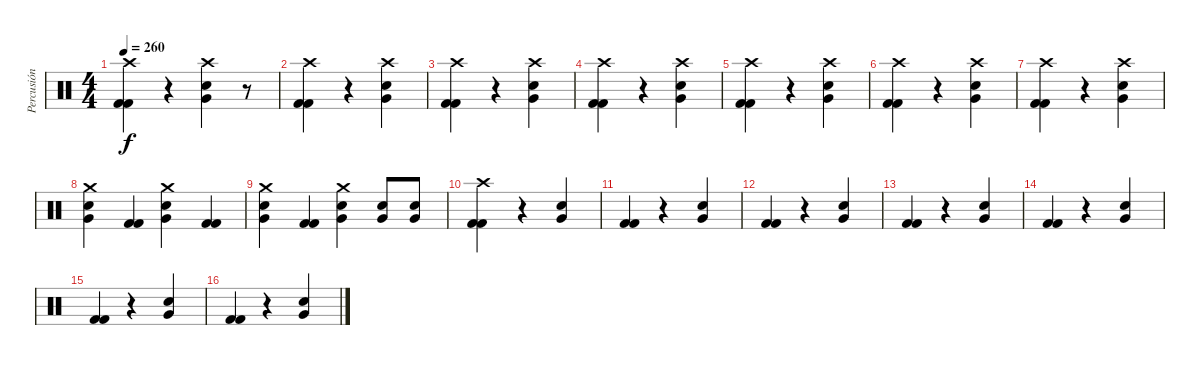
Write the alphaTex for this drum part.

\track ("Percusión" "Percusión") {instrument percussion}
\staff {score}
\articulation defaults
\ts (4 4)
\tempo 260
\clef neutral
\ks c
("Kick (hit) 2" "Kick (hit) 2" "Crash high (hit)").4{dy f} r.4 ("Very Low Tom (hit)" "Electric Snare (hit)" "Crash high (hit)").4 r.8 |
("Kick (hit) 2" "Kick (hit) 2" "Crash high (hit)").4 r.4 ("Very Low Tom (hit)" "Electric Snare (hit)" "Crash high (hit)").4 |
("Kick (hit) 2" "Kick (hit) 2" "Crash high (hit)").4 r.4 ("Very Low Tom (hit)" "Electric Snare (hit)" "Crash high (hit)").4 |
("Kick (hit) 2" "Kick (hit) 2" "Crash high (hit)").4 r.4 ("Very Low Tom (hit)" "Electric Snare (hit)" "Crash high (hit)").4 |
("Kick (hit) 2" "Kick (hit) 2" "Crash high (hit)").4 r.4 ("Very Low Tom (hit)" "Electric Snare (hit)" "Crash high (hit)").4 |
("Kick (hit) 2" "Kick (hit) 2" "Crash high (hit)").4 r.4 ("Very Low Tom (hit)" "Electric Snare (hit)" "Crash high (hit)").4 |
("Kick (hit) 2" "Kick (hit) 2" "Crash high (hit)").4 r.4 ("Very Low Tom (hit)" "Electric Snare (hit)" "Crash high (hit)").4 |
("Very Low Tom (hit)" "Electric Snare (hit)" "Crash medium (hit)").4 ("Kick (hit) 2" "Kick (hit) 2").4 ("Very Low Tom (hit)" "Electric Snare (hit)" "Crash medium (hit)").4 ("Kick (hit) 2" "Kick (hit) 2").4 |
("Very Low Tom (hit)" "Electric Snare (hit)" "Crash medium (hit)").4 ("Kick (hit) 2" "Kick (hit) 2").4 ("Very Low Tom (hit)" "Electric Snare (hit)" "Crash medium (hit)").4 ("Very Low Tom (hit)" "Electric Snare (hit)").8 ("Very Low Tom (hit)" "Electric Snare (hit)").8 |
("Crash high (hit)" "Kick (hit) 2" "Kick (hit) 2").4 r.4 ("Very Low Tom (hit)" "Electric Snare (hit)").4 |
("Kick (hit) 2" "Kick (hit) 2").4 r.4 ("Very Low Tom (hit)" "Electric Snare (hit)").4 |
("Kick (hit) 2" "Kick (hit) 2").4 r.4 ("Very Low Tom (hit)" "Electric Snare (hit)").4 |
("Kick (hit) 2" "Kick (hit) 2").4 r.4 ("Very Low Tom (hit)" "Electric Snare (hit)").4 |
("Kick (hit) 2" "Kick (hit) 2").4 r.4 ("Very Low Tom (hit)" "Electric Snare (hit)").4 |
("Kick (hit) 2" "Kick (hit) 2").4 r.4 ("Very Low Tom (hit)" "Electric Snare (hit)").4 |
("Kick (hit) 2" "Kick (hit) 2").4 r.4 ("Very Low Tom (hit)" "Electric Snare (hit)").4
